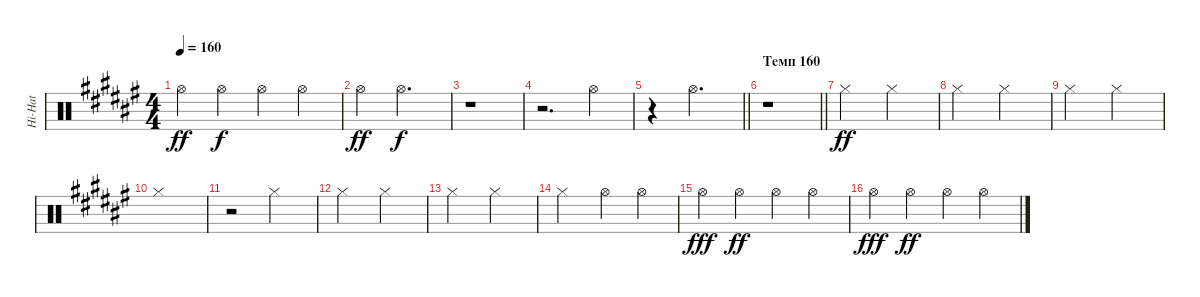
\track ("Hi-Hat" "Hi-Hat") {instrument percussion}
\staff {score}
\articulation defaults
\ts (4 4)
\tempo 160
\clef neutral
\ks d#minor "Hi-Hat (open)".4{dy ff} "Hi-Hat (open)".4{dy f} "Hi-Hat (open)".4 "Hi-Hat (open)".4
|
"Hi-Hat (open)".4{dy ff} "Hi-Hat (open)".2{d dy f} |
r.1 |
r.2{d} "Hi-Hat (open)".4 |
\barLineRight lightlight
r.4 "Hi-Hat (open)".2{d} |
\section ("" "Темп 160")
\barLineRight lightlight
r.1 |
"Hi-Hat (closed)".2{dy ff} "Hi-Hat (closed)".2 |
"Hi-Hat (closed)".2 "Hi-Hat (closed)".2 |
"Hi-Hat (closed)".2 "Hi-Hat (closed)".2 |
"Hi-Hat (closed)".1 |
r.2 "Hi-Hat (closed)".2 |
"Hi-Hat (closed)".2 "Hi-Hat (closed)".2 |
"Hi-Hat (closed)".2 "Hi-Hat (closed)".2 |
"Hi-Hat (closed)".2 "Hi-Hat (open)".4 "Hi-Hat (open)".4 |
"Hi-Hat (open)".4{dy fff} "Hi-Hat (open)".4{dy ff} "Hi-Hat (open)".4 "Hi-Hat (open)".4 |
"Hi-Hat (open)".4{dy fff} "Hi-Hat (open)".4{dy ff} "Hi-Hat (open)".4 "Hi-Hat (open)".4
